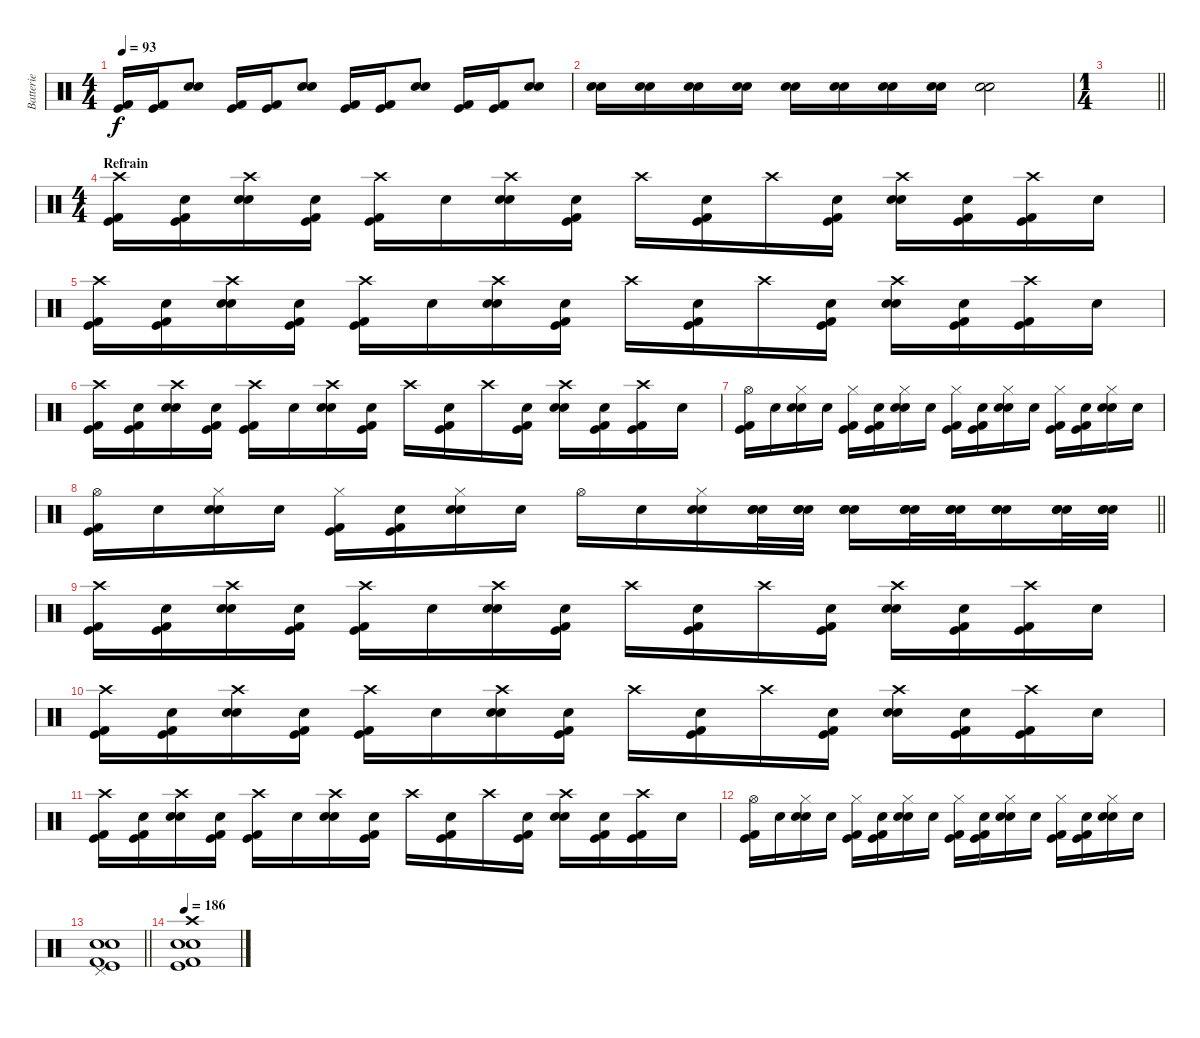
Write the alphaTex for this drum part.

\track ("Batterie" "Batterie") {instrument percussion}
\staff {score}
\articulation defaults
\ts (4 4)
\tempo 93
\clef neutral
\ks c
("Kick (hit)" "Kick (hit) 2").16{dy f} ("Kick (hit)" "Kick (hit) 2").16 ("Electric Snare (hit)" "Snare (hit) 2").8 ("Kick (hit)" "Kick (hit) 2").16 ("Kick (hit)" "Kick (hit) 2").16 ("Electric Snare (hit)" "Snare (hit) 2").8 ("Kick (hit)" "Kick (hit) 2").16 ("Kick (hit)" "Kick (hit) 2").16 ("Electric Snare (hit)" "Snare (hit) 2").8 ("Kick (hit)" "Kick (hit) 2").16 ("Kick (hit)" "Kick (hit) 2").16 ("Electric Snare (hit)" "Snare (hit) 2").8 |
("Electric Snare (hit)" "Snare (hit) 2").16 ("Electric Snare (hit)" "Snare (hit) 2").16 ("Electric Snare (hit)" "Snare (hit) 2").16 ("Electric Snare (hit)" "Snare (hit) 2").16 ("Electric Snare (hit)" "Snare (hit) 2").16 ("Electric Snare (hit)" "Snare (hit) 2").16 ("Electric Snare (hit)" "Snare (hit) 2").16 ("Electric Snare (hit)" "Snare (hit) 2").16 ("Electric Snare (hit)" "Snare (hit) 2").2 |
\ts (1 4)
\barLineRight lightlight
|
\ts (4 4)
\section ("" "Refrain")
("Crash high (hit)" "Kick (hit)" "Kick (hit) 2").16 ("Snare (hit)" "Kick (hit)" "Kick (hit) 2").16 ("Crash high (hit)" "Electric Snare (hit)" "Snare (hit) 2").16 ("Snare (hit)" "Kick (hit)" "Kick (hit) 2").16 ("Crash high (hit)" "Kick (hit)" "Kick (hit) 2").16 "Snare (hit)".16 ("Crash high (hit)" "Electric Snare (hit)" "Snare (hit) 2").16 ("Snare (hit)" "Kick (hit)" "Kick (hit) 2").16 "Crash high (hit)".16 ("Snare (hit)" "Kick (hit)" "Kick (hit) 2").16 "Crash high (hit)".16 ("Snare (hit)" "Kick (hit)" "Kick (hit) 2").16 ("Crash high (hit)" "Electric Snare (hit)" "Snare (hit) 2").16 ("Snare (hit)" "Kick (hit)" "Kick (hit) 2").16 ("Crash high (hit)" "Kick (hit)" "Kick (hit) 2").16 "Snare (hit)".16 |
("Crash high (hit)" "Kick (hit)" "Kick (hit) 2").16 ("Snare (hit)" "Kick (hit)" "Kick (hit) 2").16 ("Crash high (hit)" "Electric Snare (hit)" "Snare (hit) 2").16 ("Snare (hit)" "Kick (hit)" "Kick (hit) 2").16 ("Crash high (hit)" "Kick (hit)" "Kick (hit) 2").16 "Snare (hit)".16 ("Crash high (hit)" "Electric Snare (hit)" "Snare (hit) 2").16 ("Snare (hit)" "Kick (hit)" "Kick (hit) 2").16 "Crash high (hit)".16 ("Snare (hit)" "Kick (hit)" "Kick (hit) 2").16 "Crash high (hit)".16 ("Snare (hit)" "Kick (hit)" "Kick (hit) 2").16 ("Crash high (hit)" "Electric Snare (hit)" "Snare (hit) 2").16 ("Snare (hit)" "Kick (hit)" "Kick (hit) 2").16 ("Crash high (hit)" "Kick (hit)" "Kick (hit) 2").16 "Snare (hit)".16 |
("Crash high (hit)" "Kick (hit)" "Kick (hit) 2").16 ("Snare (hit)" "Kick (hit)" "Kick (hit) 2").16 ("Crash high (hit)" "Electric Snare (hit)" "Snare (hit) 2").16 ("Snare (hit)" "Kick (hit)" "Kick (hit) 2").16 ("Crash high (hit)" "Kick (hit)" "Kick (hit) 2").16 "Snare (hit)".16 ("Crash high (hit)" "Electric Snare (hit)" "Snare (hit) 2").16 ("Snare (hit)" "Kick (hit)" "Kick (hit) 2").16 "Crash high (hit)".16 ("Snare (hit)" "Kick (hit)" "Kick (hit) 2").16 "Crash high (hit)".16 ("Snare (hit)" "Kick (hit)" "Kick (hit) 2").16 ("Crash high (hit)" "Electric Snare (hit)" "Snare (hit) 2").16 ("Snare (hit)" "Kick (hit)" "Kick (hit) 2").16 ("Crash high (hit)" "Kick (hit)" "Kick (hit) 2").16 "Snare (hit)".16 |
("Hi-Hat (open)" "Kick (hit)" "Kick (hit) 2").16 "Snare (hit)".16 ("Hi-Hat (closed)" "Electric Snare (hit)" "Snare (hit) 2").16 "Snare (hit)".16 ("Hi-Hat (closed)" "Kick (hit)" "Kick (hit) 2").16 ("Snare (hit)" "Kick (hit)" "Kick (hit) 2").16 ("Hi-Hat (closed)" "Electric Snare (hit)" "Snare (hit) 2").16 "Snare (hit)".16 ("Hi-Hat (closed)" "Kick (hit)" "Kick (hit) 2").16 ("Snare (hit)" "Kick (hit)" "Kick (hit) 2").16 ("Hi-Hat (closed)" "Electric Snare (hit)" "Snare (hit) 2").16 "Snare (hit)".16 ("Hi-Hat (closed)" "Kick (hit)" "Kick (hit) 2").16 ("Snare (hit)" "Kick (hit)" "Kick (hit) 2").16 ("Hi-Hat (closed)" "Electric Snare (hit)" "Snare (hit) 2").16 "Snare (hit)".16 |
\barLineRight lightlight
("Hi-Hat (open)" "Kick (hit)" "Kick (hit) 2").16 "Snare (hit)".16 ("Hi-Hat (closed)" "Electric Snare (hit)" "Snare (hit) 2").16 "Snare (hit)".16 ("Hi-Hat (closed)" "Kick (hit)" "Kick (hit) 2").16 ("Snare (hit)" "Kick (hit)" "Kick (hit) 2").16 ("Hi-Hat (closed)" "Electric Snare (hit)" "Snare (hit) 2").16 "Snare (hit)".16 "Hi-Hat (open)".16 "Snare (hit)".16 ("Hi-Hat (closed)" "Electric Snare (hit)" "Snare (hit) 2").16 ("Snare (hit)" "Electric Snare (hit)" "Snare (hit) 2").32 ("Snare (hit)" "Electric Snare (hit)" "Snare (hit) 2").32 ("Snare (hit)" "Electric Snare (hit)" "Snare (hit) 2").16 ("Snare (hit)" "Electric Snare (hit)" "Snare (hit) 2").32 ("Snare (hit)" "Electric Snare (hit)" "Snare (hit) 2").32 ("Snare (hit)" "Electric Snare (hit)" "Snare (hit) 2").16 ("Snare (hit)" "Electric Snare (hit)" "Snare (hit) 2").32 ("Snare (hit)" "Electric Snare (hit)" "Snare (hit) 2").32 |
("Crash high (hit)" "Kick (hit)" "Kick (hit) 2").16 ("Snare (hit)" "Kick (hit)" "Kick (hit) 2").16 ("Crash high (hit)" "Electric Snare (hit)" "Snare (hit) 2").16 ("Snare (hit)" "Kick (hit)" "Kick (hit) 2").16 ("Crash high (hit)" "Kick (hit)" "Kick (hit) 2").16 "Snare (hit)".16 ("Crash high (hit)" "Electric Snare (hit)" "Snare (hit) 2").16 ("Snare (hit)" "Kick (hit)" "Kick (hit) 2").16 "Crash high (hit)".16 ("Snare (hit)" "Kick (hit)" "Kick (hit) 2").16 "Crash high (hit)".16 ("Snare (hit)" "Kick (hit)" "Kick (hit) 2").16 ("Crash high (hit)" "Electric Snare (hit)" "Snare (hit) 2").16 ("Snare (hit)" "Kick (hit)" "Kick (hit) 2").16 ("Crash high (hit)" "Kick (hit)" "Kick (hit) 2").16 "Snare (hit)".16 |
("Crash high (hit)" "Kick (hit)" "Kick (hit) 2").16 ("Snare (hit)" "Kick (hit)" "Kick (hit) 2").16 ("Crash high (hit)" "Electric Snare (hit)" "Snare (hit) 2").16 ("Snare (hit)" "Kick (hit)" "Kick (hit) 2").16 ("Crash high (hit)" "Kick (hit)" "Kick (hit) 2").16 "Snare (hit)".16 ("Crash high (hit)" "Electric Snare (hit)" "Snare (hit) 2").16 ("Snare (hit)" "Kick (hit)" "Kick (hit) 2").16 "Crash high (hit)".16 ("Snare (hit)" "Kick (hit)" "Kick (hit) 2").16 "Crash high (hit)".16 ("Snare (hit)" "Kick (hit)" "Kick (hit) 2").16 ("Crash high (hit)" "Electric Snare (hit)" "Snare (hit) 2").16 ("Snare (hit)" "Kick (hit)" "Kick (hit) 2").16 ("Crash high (hit)" "Kick (hit)" "Kick (hit) 2").16 "Snare (hit)".16 |
("Crash high (hit)" "Kick (hit)" "Kick (hit) 2").16 ("Snare (hit)" "Kick (hit)" "Kick (hit) 2").16 ("Crash high (hit)" "Electric Snare (hit)" "Snare (hit) 2").16 ("Snare (hit)" "Kick (hit)" "Kick (hit) 2").16 ("Crash high (hit)" "Kick (hit)" "Kick (hit) 2").16 "Snare (hit)".16 ("Crash high (hit)" "Electric Snare (hit)" "Snare (hit) 2").16 ("Snare (hit)" "Kick (hit)" "Kick (hit) 2").16 "Crash high (hit)".16 ("Snare (hit)" "Kick (hit)" "Kick (hit) 2").16 "Crash high (hit)".16 ("Snare (hit)" "Kick (hit)" "Kick (hit) 2").16 ("Crash high (hit)" "Electric Snare (hit)" "Snare (hit) 2").16 ("Snare (hit)" "Kick (hit)" "Kick (hit) 2").16 ("Crash high (hit)" "Kick (hit)" "Kick (hit) 2").16 "Snare (hit)".16 |
("Hi-Hat (open)" "Kick (hit)" "Kick (hit) 2").16 "Snare (hit)".16 ("Hi-Hat (closed)" "Electric Snare (hit)" "Snare (hit) 2").16 "Snare (hit)".16 ("Hi-Hat (closed)" "Kick (hit)" "Kick (hit) 2").16 ("Snare (hit)" "Kick (hit)" "Kick (hit) 2").16 ("Hi-Hat (closed)" "Electric Snare (hit)" "Snare (hit) 2").16 "Snare (hit)".16 ("Hi-Hat (closed)" "Kick (hit)" "Kick (hit) 2").16 ("Snare (hit)" "Kick (hit)" "Kick (hit) 2").16 ("Hi-Hat (closed)" "Electric Snare (hit)" "Snare (hit) 2").16 "Snare (hit)".16 ("Hi-Hat (closed)" "Kick (hit)" "Kick (hit) 2").16 ("Snare (hit)" "Kick (hit)" "Kick (hit) 2").16 ("Hi-Hat (closed)" "Electric Snare (hit)" "Snare (hit) 2").16 "Snare (hit)".16 |
\barLineRight lightlight
("Pedal Hi-Hat (hit)" "Kick (hit)" "Kick (hit) 2" "Electric Snare (hit)" "Snare (hit) 2").1 |
\tempo 186
("Crash high (hit)" "Kick (hit)" "Kick (hit) 2" "Electric Snare (hit)" "Snare (hit) 2").1
